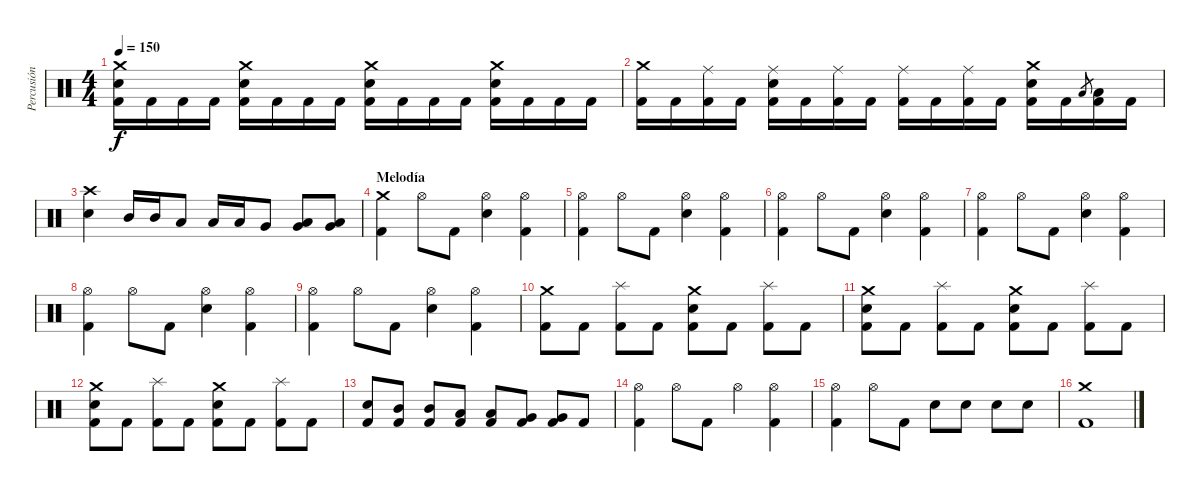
\track ("Percusión" "Percusión") {instrument percussion}
\staff {score}
\articulation defaults
\ts (4 4)
\tempo 150
\clef neutral
\ks c
("Crash medium (hit)" "Kick (hit) 2" "Snare (hit) 2").16{dy f} "Kick (hit) 2".16 "Kick (hit) 2".16 "Kick (hit) 2".16 ("Crash medium (hit)" "Kick (hit) 2" "Snare (hit) 2").16 "Kick (hit) 2".16 "Kick (hit) 2".16 "Kick (hit) 2".16 ("Crash medium (hit)" "Kick (hit) 2" "Snare (hit) 2").16 "Kick (hit) 2".16 "Kick (hit) 2".16 "Kick (hit) 2".16 ("Crash medium (hit)" "Kick (hit) 2" "Snare (hit) 2").16 "Kick (hit) 2".16 "Kick (hit) 2".16 "Kick (hit) 2".16 |
("Crash medium (hit)" "Kick (hit) 2").16 "Kick (hit) 2".16 ("Ride (middle)" "Kick (hit) 2").16 "Kick (hit) 2".16 ("Ride (middle)" "Kick (hit) 2" "Snare (hit) 2").16 "Kick (hit) 2".16 ("Ride (middle)" "Kick (hit) 2").16 "Kick (hit) 2".16 ("Ride (middle)" "Kick (hit) 2").16 "Kick (hit) 2".16 ("Ride (middle)" "Kick (hit) 2").16 "Kick (hit) 2".16 ("Crash medium (hit)" "Kick (hit) 2" "Snare (hit) 2").16 "Kick (hit) 2".16 "Low Tom (hit)".8{gr} ("Kick (hit) 2" "Low Tom (hit)").16 "Kick (hit) 2".16 |
("Crash high (hit)" "Snare (hit) 2").4 "Mid Tom (hit)".16 "Mid Tom (hit)".16 "Low Tom (hit)".8 "Low Tom (hit)".16 "Low Tom (hit)".16 "Very Low Tom (hit)".8 ("Very Low Tom (hit)" "Low Tom (hit)").8 ("Very Low Tom (hit)" "Low Tom (hit)").8 |
\section ("" "Melodía")
("Crash medium (hit)" "Kick (hit) 2").4 "Hi-Hat (open)".8 "Kick (hit) 2".8 ("Hi-Hat (open)" "Snare (hit) 2").4 ("Hi-Hat (open)" "Kick (hit) 2").4 |
("Hi-Hat (open)" "Kick (hit) 2").4 "Hi-Hat (open)".8 "Kick (hit) 2".8 ("Hi-Hat (open)" "Snare (hit) 2").4 ("Hi-Hat (open)" "Kick (hit) 2").4 |
("Hi-Hat (open)" "Kick (hit) 2").4 "Hi-Hat (open)".8 "Kick (hit) 2".8 ("Hi-Hat (open)" "Snare (hit) 2").4 ("Hi-Hat (open)" "Kick (hit) 2").4 |
("Hi-Hat (open)" "Kick (hit) 2").4 "Hi-Hat (open)".8 "Kick (hit) 2".8 ("Hi-Hat (open)" "Snare (hit) 2").4 ("Hi-Hat (open)" "Kick (hit) 2").4 |
("Hi-Hat (open)" "Kick (hit) 2").4 "Hi-Hat (open)".8 "Kick (hit) 2".8 ("Hi-Hat (open)" "Snare (hit) 2").4 ("Hi-Hat (open)" "Kick (hit) 2").4 |
("Hi-Hat (open)" "Kick (hit) 2").4 "Hi-Hat (open)".8 "Kick (hit) 2".8 ("Hi-Hat (open)" "Snare (hit) 2").4 ("Hi-Hat (open)" "Kick (hit) 2").4 |
("Crash medium (hit)" "Kick (hit) 2").8 "Kick (hit) 2".8 ("Splash (hit)" "Kick (hit) 2").8 "Kick (hit) 2".8 ("Crash medium (hit)" "Kick (hit) 2" "Snare (hit) 2").8 "Kick (hit) 2".8 ("Splash (hit)" "Kick (hit) 2").8 "Kick (hit) 2".8 |
("Crash medium (hit)" "Kick (hit) 2" "Snare (hit) 2").8 "Kick (hit) 2".8 ("Splash (hit)" "Kick (hit) 2").8 "Kick (hit) 2".8 ("Crash medium (hit)" "Kick (hit) 2" "Snare (hit) 2").8 "Kick (hit) 2".8 ("Splash (hit)" "Kick (hit) 2").8 "Kick (hit) 2".8 |
("Crash medium (hit)" "Kick (hit) 2" "Snare (hit) 2").8 "Kick (hit) 2".8 ("Splash (hit)" "Kick (hit) 2").8 "Kick (hit) 2".8 ("Crash medium (hit)" "Kick (hit) 2" "Snare (hit) 2").8 "Kick (hit) 2".8 ("Splash (hit)" "Kick (hit) 2").8 "Kick (hit) 2".8 |
("Kick (hit) 2" "Snare (hit) 2").8 ("Kick (hit) 2" "Mid Tom (hit)").8 ("Kick (hit) 2" "Mid Tom (hit)").8 ("Kick (hit) 2" "Low Tom (hit)").8 ("Kick (hit) 2" "Low Tom (hit)").8 ("Kick (hit) 2" "Very Low Tom (hit)").8 ("Kick (hit) 2" "Very Low Tom (hit)").8 "Kick (hit) 2".8 |
("Hi-Hat (open)" "Kick (hit) 2").4 "Hi-Hat (open)".8 "Kick (hit) 2".8 "Hi-Hat (open)".4 ("Hi-Hat (open)" "Kick (hit) 2").4 |
("Hi-Hat (open)" "Kick (hit) 2").4 "Hi-Hat (open)".8 "Kick (hit) 2".8 "Snare (hit) 2".8 "Snare (hit) 2".8 "Snare (hit) 2".8 "Snare (hit) 2".8 |
("Crash medium (hit)" "Kick (hit) 2").1
